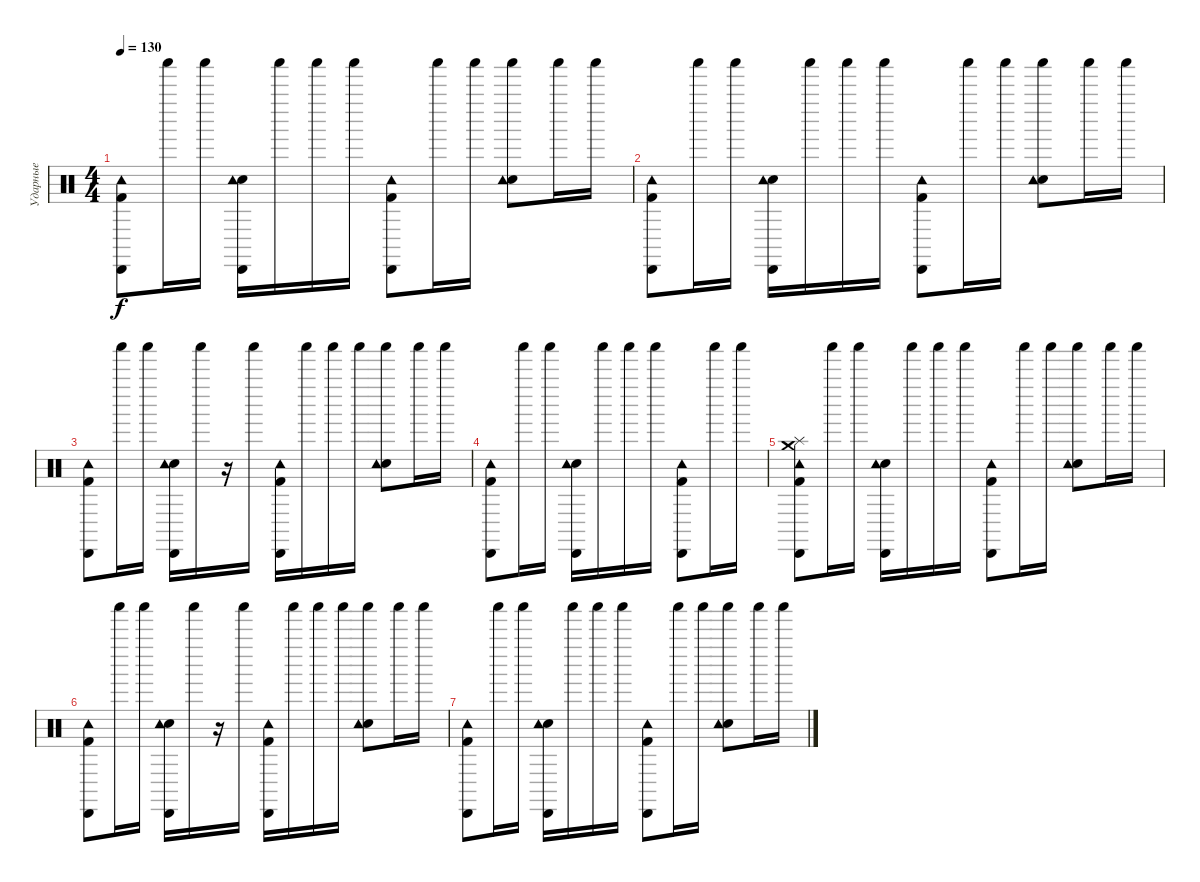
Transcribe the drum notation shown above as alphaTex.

\track ("Ударные" "Ударные") {instrument percussion}
\staff {score}
\articulation defaults
\ts (4 4)
\tempo 130
\clef neutral
\ks c
("Kick (hit) 2" "Cabasa (hit)" "Tambourine (hit)").8{dy f} "Shaker (hit)".16 "Shaker (hit)".16 ("Electric Snare (hit)" "Cabasa (hit)" "Tambourine (hit)").16 "Shaker (hit)".16 "Shaker (hit)".16 "Shaker (hit)".16 ("Kick (hit) 2" "Cabasa (hit)" "Tambourine (hit)").8 "Shaker (hit)".16 "Shaker (hit)".16 ("Electric Snare (hit)" "Shaker (hit)" "Tambourine (hit)").8 "Shaker (hit)".16 "Shaker (hit)".16 |
("Kick (hit) 2" "Cabasa (hit)" "Tambourine (hit)").8 "Shaker (hit)".16 "Shaker (hit)".16 ("Electric Snare (hit)" "Cabasa (hit)" "Tambourine (hit)").16 "Shaker (hit)".16 "Shaker (hit)".16 "Shaker (hit)".16 ("Kick (hit) 2" "Cabasa (hit)" "Tambourine (hit)").8 "Shaker (hit)".16 "Shaker (hit)".16 ("Electric Snare (hit)" "Shaker (hit)" "Tambourine (hit)").8 "Shaker (hit)".16 "Shaker (hit)".16 |
("Kick (hit) 2" "Cabasa (hit)" "Tambourine (hit)").8 "Shaker (hit)".16 "Shaker (hit)".16 ("Electric Snare (hit)" "Cabasa (hit)" "Tambourine (hit)").16 "Shaker (hit)".16 r.16 "Shaker (hit)".16 ("Kick (hit) 2" "Cabasa (hit)" "Tambourine (hit)").16 "Shaker (hit)".16 "Shaker (hit)".16 "Shaker (hit)".16 ("Electric Snare (hit)" "Shaker (hit)" "Tambourine (hit)").8 "Shaker (hit)".16 "Shaker (hit)".16 |
("Kick (hit) 2" "Cabasa (hit)" "Tambourine (hit)").8 "Shaker (hit)".16 "Shaker (hit)".16 ("Electric Snare (hit)" "Cabasa (hit)" "Tambourine (hit)").16 "Shaker (hit)".16 "Shaker (hit)".16 "Shaker (hit)".16 ("Kick (hit) 2" "Cabasa (hit)" "Tambourine (hit)").8 "Shaker (hit)".16 "Shaker (hit)".16 |
("Splash (hit)" "Kick (hit) 2" "Crash medium (hit)" "Cabasa (hit)" "Tambourine (hit)").8 "Shaker (hit)".16 "Shaker (hit)".16 ("Electric Snare (hit)" "Cabasa (hit)" "Tambourine (hit)").16 "Shaker (hit)".16 "Shaker (hit)".16 "Shaker (hit)".16 ("Kick (hit) 2" "Cabasa (hit)" "Tambourine (hit)").8 "Shaker (hit)".16 "Shaker (hit)".16 ("Electric Snare (hit)" "Shaker (hit)" "Tambourine (hit)").8 "Shaker (hit)".16 "Shaker (hit)".16 |
("Kick (hit) 2" "Cabasa (hit)" "Tambourine (hit)").8 "Shaker (hit)".16 "Shaker (hit)".16 ("Electric Snare (hit)" "Cabasa (hit)" "Tambourine (hit)").16 "Shaker (hit)".16 r.16 "Shaker (hit)".16 ("Kick (hit) 2" "Cabasa (hit)" "Tambourine (hit)").16 "Shaker (hit)".16 "Shaker (hit)".16 "Shaker (hit)".16 ("Electric Snare (hit)" "Shaker (hit)" "Tambourine (hit)").8 "Shaker (hit)".16 "Shaker (hit)".16 |
("Kick (hit) 2" "Cabasa (hit)" "Tambourine (hit)").8 "Shaker (hit)".16 "Shaker (hit)".16 ("Electric Snare (hit)" "Cabasa (hit)" "Tambourine (hit)").16 "Shaker (hit)".16 "Shaker (hit)".16 "Shaker (hit)".16 ("Kick (hit) 2" "Cabasa (hit)" "Tambourine (hit)").8 "Shaker (hit)".16 "Shaker (hit)".16 ("Electric Snare (hit)" "Shaker (hit)" "Tambourine (hit)").8 "Shaker (hit)".16 "Shaker (hit)".16
